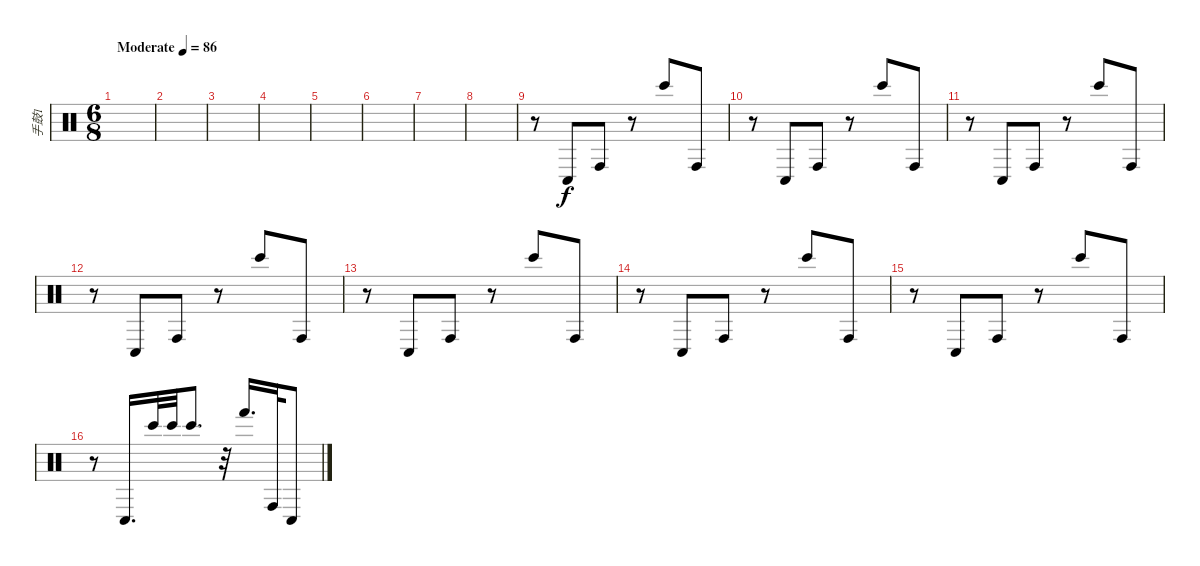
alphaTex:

\track ("手鼓1" "手鼓1") {instrument percussion}
\staff {score}
\articulation defaults
\ts (6 8)
\tempo (86 "Moderate")
\clef neutral
\ks c
|
|
|
|
|
|
|
|
r.8 "Conga low (hit)".8 "Conga high (hit)".8 r.8 "Bongo High (hit)".8 "Conga high (hit)".8 |
r.8 "Conga low (hit)".8 "Conga high (hit)".8 r.8 "Bongo High (hit)".8 "Conga high (hit)".8 |
r.8 "Conga low (hit)".8 "Conga high (hit)".8 r.8 "Bongo High (hit)".8 "Conga high (hit)".8 |
r.8 "Conga low (hit)".8 "Conga high (hit)".8 r.8 "Bongo High (hit)".8 "Conga high (hit)".8 |
r.8 "Conga low (hit)".8 "Conga high (hit)".8 r.8 "Bongo High (hit)".8 "Conga high (hit)".8 |
r.8 "Conga low (hit)".8 "Conga high (hit)".8 r.8 "Bongo High (hit)".8 "Conga high (hit)".8 |
r.8 "Conga low (hit)".8 "Conga high (hit)".8 r.8 "Bongo High (hit)".8 "Conga high (hit)".8 |
r.8 "Conga low (hit)".16{d} "Bongo High (hit)".32 "Bongo High (hit)".32 "Bongo High (hit)".8{d} r.32 "Hand (hit)".16{d} "Conga high (hit)".32 "Conga low (hit)".8
